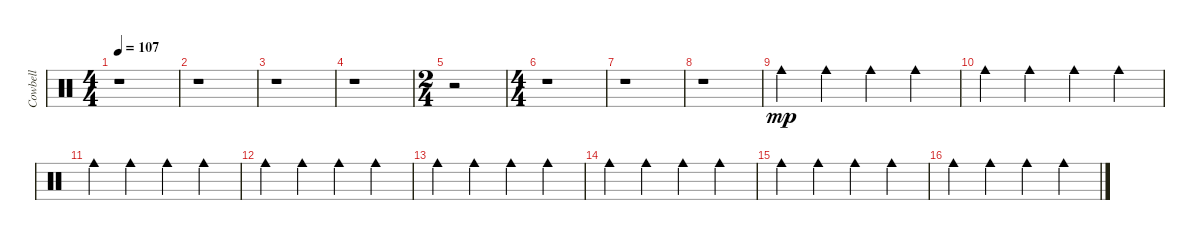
\track ("Cowbell" "Cowbell") {instrument percussion}
\staff {score}
\articulation defaults
\ts (4 4)
\tempo 107
\clef neutral
\ks c
r.1{dy mp} |
r.1 |
r.1 |
r.1 |
\ts (2 4)
r.2 |
\ts (4 4)
r.1 |
r.1 |
r.1 |
"Cowbell medium (hit)".4 "Cowbell medium (hit)".4 "Cowbell medium (hit)".4 "Cowbell medium (hit)".4 |
"Cowbell medium (hit)".4 "Cowbell medium (hit)".4 "Cowbell medium (hit)".4 "Cowbell medium (hit)".4 |
"Cowbell medium (hit)".4 "Cowbell medium (hit)".4 "Cowbell medium (hit)".4 "Cowbell medium (hit)".4 |
"Cowbell medium (hit)".4 "Cowbell medium (hit)".4 "Cowbell medium (hit)".4 "Cowbell medium (hit)".4 |
"Cowbell medium (hit)".4 "Cowbell medium (hit)".4 "Cowbell medium (hit)".4 "Cowbell medium (hit)".4 |
"Cowbell medium (hit)".4 "Cowbell medium (hit)".4 "Cowbell medium (hit)".4 "Cowbell medium (hit)".4 |
"Cowbell medium (hit)".4 "Cowbell medium (hit)".4 "Cowbell medium (hit)".4 "Cowbell medium (hit)".4 |
"Cowbell medium (hit)".4 "Cowbell medium (hit)".4 "Cowbell medium (hit)".4 "Cowbell medium (hit)".4
